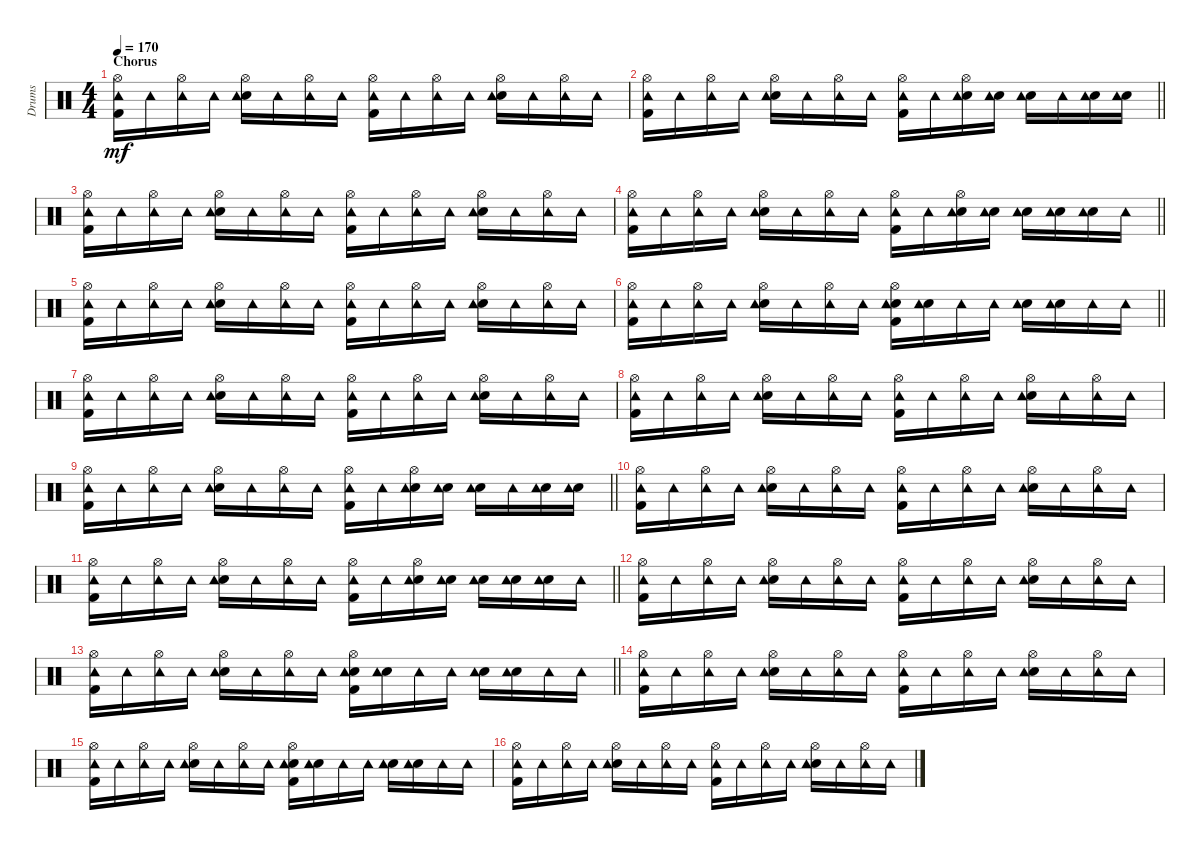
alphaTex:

\track ("Drums" "Drums") {instrument percussion}
\staff {score}
\articulation defaults
\ts (4 4)
\section ("" "Chorus")
\tempo 170
\clef neutral
\ks c
("Hi-Hat (open)" "Kick (hit) 2" "Tambourine (hit)").16{dy mf} "Tambourine (hit)".16 ("Hi-Hat (open)" "Tambourine (hit)").16 "Tambourine (hit)".16 ("Hi-Hat (open)" "Snare (hit) 2" "Tambourine (hit)").16 "Tambourine (hit)".16 ("Hi-Hat (open)" "Tambourine (hit)").16 "Tambourine (hit)".16 ("Hi-Hat (open)" "Kick (hit) 2" "Tambourine (hit)").16 "Tambourine (hit)".16 ("Hi-Hat (open)" "Tambourine (hit)").16 "Tambourine (hit)".16 ("Hi-Hat (open)" "Snare (hit) 2" "Tambourine (hit)").16 "Tambourine (hit)".16 ("Hi-Hat (open)" "Tambourine (hit)").16 "Tambourine (hit)".16 |
\barLineRight lightlight
("Hi-Hat (open)" "Kick (hit) 2" "Tambourine (hit)").16 "Tambourine (hit)".16 ("Hi-Hat (open)" "Tambourine (hit)").16 "Tambourine (hit)".16 ("Hi-Hat (open)" "Snare (hit) 2" "Tambourine (hit)").16 "Tambourine (hit)".16 ("Hi-Hat (open)" "Tambourine (hit)").16 "Tambourine (hit)".16 ("Hi-Hat (open)" "Kick (hit) 2" "Tambourine (hit)").16 "Tambourine (hit)".16 ("Hi-Hat (open)" "Snare (hit) 2" "Tambourine (hit)").16 ("Snare (hit) 2" "Tambourine (hit)").16 ("Snare (hit) 2" "Tambourine (hit)").16 "Tambourine (hit)".16 ("Snare (hit) 2" "Tambourine (hit)").16 ("Snare (hit) 2" "Tambourine (hit)").16 |
("Hi-Hat (open)" "Kick (hit) 2" "Tambourine (hit)").16 "Tambourine (hit)".16 ("Hi-Hat (open)" "Tambourine (hit)").16 "Tambourine (hit)".16 ("Hi-Hat (open)" "Snare (hit) 2" "Tambourine (hit)").16 "Tambourine (hit)".16 ("Hi-Hat (open)" "Tambourine (hit)").16 "Tambourine (hit)".16 ("Hi-Hat (open)" "Kick (hit) 2" "Tambourine (hit)").16 "Tambourine (hit)".16 ("Hi-Hat (open)" "Tambourine (hit)").16 "Tambourine (hit)".16 ("Hi-Hat (open)" "Snare (hit) 2" "Tambourine (hit)").16 "Tambourine (hit)".16 ("Hi-Hat (open)" "Tambourine (hit)").16 "Tambourine (hit)".16 |
\barLineRight lightlight
("Hi-Hat (open)" "Kick (hit) 2" "Tambourine (hit)").16 "Tambourine (hit)".16 ("Hi-Hat (open)" "Tambourine (hit)").16 "Tambourine (hit)".16 ("Hi-Hat (open)" "Snare (hit) 2" "Tambourine (hit)").16 "Tambourine (hit)".16 ("Hi-Hat (open)" "Tambourine (hit)").16 "Tambourine (hit)".16 ("Hi-Hat (open)" "Kick (hit) 2" "Tambourine (hit)").16 "Tambourine (hit)".16 ("Hi-Hat (open)" "Snare (hit) 2" "Tambourine (hit)").16 ("Snare (hit) 2" "Tambourine (hit)").16 ("Snare (hit) 2" "Tambourine (hit)").16 ("Snare (hit) 2" "Tambourine (hit)").16 ("Snare (hit) 2" "Tambourine (hit)").16 "Tambourine (hit)".16 |
("Hi-Hat (open)" "Kick (hit) 2" "Tambourine (hit)").16 "Tambourine (hit)".16 ("Hi-Hat (open)" "Tambourine (hit)").16 "Tambourine (hit)".16 ("Hi-Hat (open)" "Snare (hit) 2" "Tambourine (hit)").16 "Tambourine (hit)".16 ("Hi-Hat (open)" "Tambourine (hit)").16 "Tambourine (hit)".16 ("Hi-Hat (open)" "Kick (hit) 2" "Tambourine (hit)").16 "Tambourine (hit)".16 ("Hi-Hat (open)" "Tambourine (hit)").16 "Tambourine (hit)".16 ("Hi-Hat (open)" "Snare (hit) 2" "Tambourine (hit)").16 "Tambourine (hit)".16 ("Hi-Hat (open)" "Tambourine (hit)").16 "Tambourine (hit)".16 |
\barLineRight lightlight
("Hi-Hat (open)" "Kick (hit) 2" "Tambourine (hit)").16 "Tambourine (hit)".16 ("Hi-Hat (open)" "Tambourine (hit)").16 "Tambourine (hit)".16 ("Hi-Hat (open)" "Snare (hit) 2" "Tambourine (hit)").16 "Tambourine (hit)".16 ("Hi-Hat (open)" "Tambourine (hit)").16 "Tambourine (hit)".16 ("Hi-Hat (open)" "Snare (hit) 2" "Kick (hit) 2" "Tambourine (hit)").16 ("Snare (hit) 2" "Tambourine (hit)").16 "Tambourine (hit)".16 "Tambourine (hit)".16 ("Snare (hit) 2" "Tambourine (hit)").16 ("Snare (hit) 2" "Tambourine (hit)").16 "Tambourine (hit)".16 "Tambourine (hit)".16 |
("Hi-Hat (open)" "Kick (hit) 2" "Tambourine (hit)").16 "Tambourine (hit)".16 ("Hi-Hat (open)" "Tambourine (hit)").16 "Tambourine (hit)".16 ("Hi-Hat (open)" "Snare (hit) 2" "Tambourine (hit)").16 "Tambourine (hit)".16 ("Hi-Hat (open)" "Tambourine (hit)").16 "Tambourine (hit)".16 ("Hi-Hat (open)" "Kick (hit) 2" "Tambourine (hit)").16 "Tambourine (hit)".16 ("Hi-Hat (open)" "Tambourine (hit)").16 "Tambourine (hit)".16 ("Hi-Hat (open)" "Snare (hit) 2" "Tambourine (hit)").16 "Tambourine (hit)".16 ("Hi-Hat (open)" "Tambourine (hit)").16 "Tambourine (hit)".16 |
("Hi-Hat (open)" "Kick (hit) 2" "Tambourine (hit)").16 "Tambourine (hit)".16 ("Hi-Hat (open)" "Tambourine (hit)").16 "Tambourine (hit)".16 ("Hi-Hat (open)" "Snare (hit) 2" "Tambourine (hit)").16 "Tambourine (hit)".16 ("Hi-Hat (open)" "Tambourine (hit)").16 "Tambourine (hit)".16 ("Hi-Hat (open)" "Kick (hit) 2" "Tambourine (hit)").16 "Tambourine (hit)".16 ("Hi-Hat (open)" "Tambourine (hit)").16 "Tambourine (hit)".16 ("Hi-Hat (open)" "Snare (hit) 2" "Tambourine (hit)").16 "Tambourine (hit)".16 ("Hi-Hat (open)" "Tambourine (hit)").16 "Tambourine (hit)".16 |
\barLineRight lightlight
("Hi-Hat (open)" "Kick (hit) 2" "Tambourine (hit)").16 "Tambourine (hit)".16 ("Hi-Hat (open)" "Tambourine (hit)").16 "Tambourine (hit)".16 ("Hi-Hat (open)" "Snare (hit) 2" "Tambourine (hit)").16 "Tambourine (hit)".16 ("Hi-Hat (open)" "Tambourine (hit)").16 "Tambourine (hit)".16 ("Hi-Hat (open)" "Kick (hit) 2" "Tambourine (hit)").16 "Tambourine (hit)".16 ("Hi-Hat (open)" "Snare (hit) 2" "Tambourine (hit)").16 ("Snare (hit) 2" "Tambourine (hit)").16 ("Snare (hit) 2" "Tambourine (hit)").16 "Tambourine (hit)".16 ("Snare (hit) 2" "Tambourine (hit)").16 ("Snare (hit) 2" "Tambourine (hit)").16 |
("Hi-Hat (open)" "Kick (hit) 2" "Tambourine (hit)").16 "Tambourine (hit)".16 ("Hi-Hat (open)" "Tambourine (hit)").16 "Tambourine (hit)".16 ("Hi-Hat (open)" "Snare (hit) 2" "Tambourine (hit)").16 "Tambourine (hit)".16 ("Hi-Hat (open)" "Tambourine (hit)").16 "Tambourine (hit)".16 ("Hi-Hat (open)" "Kick (hit) 2" "Tambourine (hit)").16 "Tambourine (hit)".16 ("Hi-Hat (open)" "Tambourine (hit)").16 "Tambourine (hit)".16 ("Hi-Hat (open)" "Snare (hit) 2" "Tambourine (hit)").16 "Tambourine (hit)".16 ("Hi-Hat (open)" "Tambourine (hit)").16 "Tambourine (hit)".16 |
\barLineRight lightlight
("Hi-Hat (open)" "Kick (hit) 2" "Tambourine (hit)").16 "Tambourine (hit)".16 ("Hi-Hat (open)" "Tambourine (hit)").16 "Tambourine (hit)".16 ("Hi-Hat (open)" "Snare (hit) 2" "Tambourine (hit)").16 "Tambourine (hit)".16 ("Hi-Hat (open)" "Tambourine (hit)").16 "Tambourine (hit)".16 ("Hi-Hat (open)" "Kick (hit) 2" "Tambourine (hit)").16 "Tambourine (hit)".16 ("Hi-Hat (open)" "Snare (hit) 2" "Tambourine (hit)").16 ("Snare (hit) 2" "Tambourine (hit)").16 ("Snare (hit) 2" "Tambourine (hit)").16 ("Snare (hit) 2" "Tambourine (hit)").16 ("Snare (hit) 2" "Tambourine (hit)").16 "Tambourine (hit)".16 |
("Hi-Hat (open)" "Kick (hit) 2" "Tambourine (hit)").16 "Tambourine (hit)".16 ("Hi-Hat (open)" "Tambourine (hit)").16 "Tambourine (hit)".16 ("Hi-Hat (open)" "Snare (hit) 2" "Tambourine (hit)").16 "Tambourine (hit)".16 ("Hi-Hat (open)" "Tambourine (hit)").16 "Tambourine (hit)".16 ("Hi-Hat (open)" "Kick (hit) 2" "Tambourine (hit)").16 "Tambourine (hit)".16 ("Hi-Hat (open)" "Tambourine (hit)").16 "Tambourine (hit)".16 ("Hi-Hat (open)" "Snare (hit) 2" "Tambourine (hit)").16 "Tambourine (hit)".16 ("Hi-Hat (open)" "Tambourine (hit)").16 "Tambourine (hit)".16 |
\barLineRight lightlight
("Hi-Hat (open)" "Kick (hit) 2" "Tambourine (hit)").16 "Tambourine (hit)".16 ("Hi-Hat (open)" "Tambourine (hit)").16 "Tambourine (hit)".16 ("Hi-Hat (open)" "Snare (hit) 2" "Tambourine (hit)").16 "Tambourine (hit)".16 ("Hi-Hat (open)" "Tambourine (hit)").16 "Tambourine (hit)".16 ("Hi-Hat (open)" "Snare (hit) 2" "Kick (hit) 2" "Tambourine (hit)").16 ("Snare (hit) 2" "Tambourine (hit)").16 "Tambourine (hit)".16 "Tambourine (hit)".16 ("Snare (hit) 2" "Tambourine (hit)").16 ("Snare (hit) 2" "Tambourine (hit)").16 "Tambourine (hit)".16 "Tambourine (hit)".16 |
("Hi-Hat (open)" "Kick (hit) 2" "Tambourine (hit)").16 "Tambourine (hit)".16 ("Hi-Hat (open)" "Tambourine (hit)").16 "Tambourine (hit)".16 ("Hi-Hat (open)" "Snare (hit) 2" "Tambourine (hit)").16 "Tambourine (hit)".16 ("Hi-Hat (open)" "Tambourine (hit)").16 "Tambourine (hit)".16 ("Hi-Hat (open)" "Kick (hit) 2" "Tambourine (hit)").16 "Tambourine (hit)".16 ("Hi-Hat (open)" "Tambourine (hit)").16 "Tambourine (hit)".16 ("Hi-Hat (open)" "Snare (hit) 2" "Tambourine (hit)").16 "Tambourine (hit)".16 ("Hi-Hat (open)" "Tambourine (hit)").16 "Tambourine (hit)".16 |
("Hi-Hat (open)" "Kick (hit) 2" "Tambourine (hit)").16 "Tambourine (hit)".16 ("Hi-Hat (open)" "Tambourine (hit)").16 "Tambourine (hit)".16 ("Hi-Hat (open)" "Snare (hit) 2" "Tambourine (hit)").16 "Tambourine (hit)".16 ("Hi-Hat (open)" "Tambourine (hit)").16 "Tambourine (hit)".16 ("Hi-Hat (open)" "Snare (hit) 2" "Kick (hit) 2" "Tambourine (hit)").16 ("Snare (hit) 2" "Tambourine (hit)").16 "Tambourine (hit)".16 "Tambourine (hit)".16 ("Snare (hit) 2" "Tambourine (hit)").16 ("Snare (hit) 2" "Tambourine (hit)").16 "Tambourine (hit)".16 "Tambourine (hit)".16 |
("Hi-Hat (open)" "Kick (hit) 2" "Tambourine (hit)").16 "Tambourine (hit)".16 ("Hi-Hat (open)" "Tambourine (hit)").16 "Tambourine (hit)".16 ("Hi-Hat (open)" "Snare (hit) 2" "Tambourine (hit)").16 "Tambourine (hit)".16 ("Hi-Hat (open)" "Tambourine (hit)").16 "Tambourine (hit)".16 ("Hi-Hat (open)" "Kick (hit) 2" "Tambourine (hit)").16 "Tambourine (hit)".16 ("Hi-Hat (open)" "Tambourine (hit)").16 "Tambourine (hit)".16 ("Hi-Hat (open)" "Snare (hit) 2" "Tambourine (hit)").16 "Tambourine (hit)".16 ("Hi-Hat (open)" "Tambourine (hit)").16 "Tambourine (hit)".16
